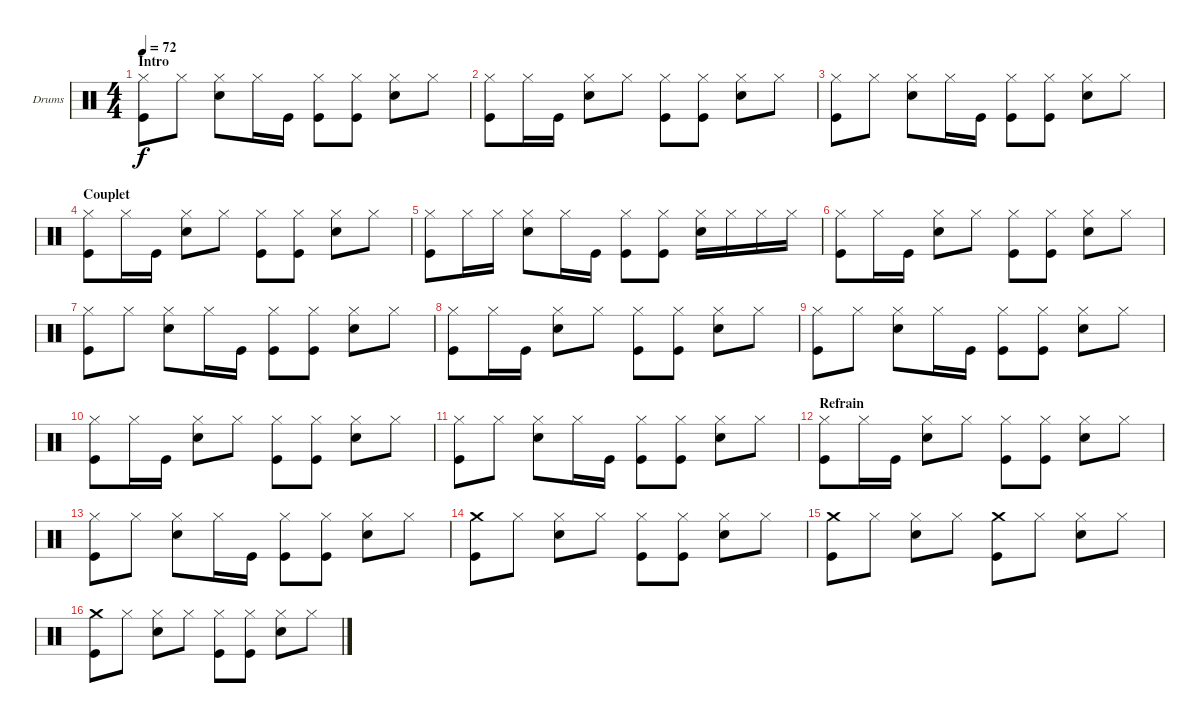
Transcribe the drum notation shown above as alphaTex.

\bracketExtendMode groupsimilarinstruments
\firstSystemTrackNameOrientation horizontal
\otherSystemsTrackNameOrientation horizontal
\track ("Roger Taylor" "Drums") {multiBarRest instrument percussion}
\staff {score}
\articulation defaults
\ts (4 4)
\section ("" "Intro")
\tempo 72
\clef neutral
\ks c
("Hi-Hat (closed)" "Kick (hit)").8{dy f} "Hi-Hat (closed)".8 ("Hi-Hat (closed)" "Snare (hit) 2").8 "Hi-Hat (closed)".16 "Kick (hit)".16 ("Hi-Hat (closed)" "Kick (hit)").8 ("Hi-Hat (closed)" "Kick (hit)").8 ("Hi-Hat (closed)" "Snare (hit) 2").8 "Hi-Hat (closed)".8 |
("Hi-Hat (closed)" "Kick (hit)").8 "Hi-Hat (closed)".16 "Kick (hit)".16 ("Hi-Hat (closed)" "Snare (hit) 2").8 "Hi-Hat (closed)".8 ("Hi-Hat (closed)" "Kick (hit)").8 ("Hi-Hat (closed)" "Kick (hit)").8 ("Hi-Hat (closed)" "Snare (hit) 2").8 "Hi-Hat (closed)".8 |
("Hi-Hat (closed)" "Kick (hit)").8 "Hi-Hat (closed)".8 ("Hi-Hat (closed)" "Snare (hit) 2").8 "Hi-Hat (closed)".16 "Kick (hit)".16 ("Hi-Hat (closed)" "Kick (hit)").8 ("Hi-Hat (closed)" "Kick (hit)").8 ("Hi-Hat (closed)" "Snare (hit) 2").8 "Hi-Hat (closed)".8 |
\section ("" "Couplet")
("Hi-Hat (closed)" "Kick (hit)").8 "Hi-Hat (closed)".16 "Kick (hit)".16 ("Hi-Hat (closed)" "Snare (hit) 2").8 "Hi-Hat (closed)".8 ("Hi-Hat (closed)" "Kick (hit)").8 ("Hi-Hat (closed)" "Kick (hit)").8 ("Hi-Hat (closed)" "Snare (hit) 2").8 "Hi-Hat (closed)".8 |
("Hi-Hat (closed)" "Kick (hit)").8 "Hi-Hat (closed)".16 "Hi-Hat (closed)".16 ("Hi-Hat (closed)" "Snare (hit) 2").8 "Hi-Hat (closed)".16 "Kick (hit)".16 ("Hi-Hat (closed)" "Kick (hit)").8 ("Hi-Hat (closed)" "Kick (hit)").8 ("Hi-Hat (closed)" "Snare (hit) 2").16 "Hi-Hat (closed)".16 "Hi-Hat (closed)".16 "Hi-Hat (closed)".16 |
("Hi-Hat (closed)" "Kick (hit)").8 "Hi-Hat (closed)".16 "Kick (hit)".16 ("Hi-Hat (closed)" "Snare (hit) 2").8 "Hi-Hat (closed)".8 ("Hi-Hat (closed)" "Kick (hit)").8 ("Hi-Hat (closed)" "Kick (hit)").8 ("Hi-Hat (closed)" "Snare (hit) 2").8 "Hi-Hat (closed)".8 |
("Hi-Hat (closed)" "Kick (hit)").8 "Hi-Hat (closed)".8 ("Hi-Hat (closed)" "Snare (hit) 2").8 "Hi-Hat (closed)".16 "Kick (hit)".16 ("Hi-Hat (closed)" "Kick (hit)").8 ("Hi-Hat (closed)" "Kick (hit)").8 ("Hi-Hat (closed)" "Snare (hit) 2").8 "Hi-Hat (closed)".8 |
("Hi-Hat (closed)" "Kick (hit)").8 "Hi-Hat (closed)".16 "Kick (hit)".16 ("Hi-Hat (closed)" "Snare (hit) 2").8 "Hi-Hat (closed)".8 ("Hi-Hat (closed)" "Kick (hit)").8 ("Hi-Hat (closed)" "Kick (hit)").8 ("Hi-Hat (closed)" "Snare (hit) 2").8 "Hi-Hat (closed)".8 |
("Hi-Hat (closed)" "Kick (hit)").8 "Hi-Hat (closed)".8 ("Hi-Hat (closed)" "Snare (hit) 2").8 "Hi-Hat (closed)".16 "Kick (hit)".16 ("Hi-Hat (closed)" "Kick (hit)").8 ("Hi-Hat (closed)" "Kick (hit)").8 ("Hi-Hat (closed)" "Snare (hit) 2").8 "Hi-Hat (closed)".8 |
("Hi-Hat (closed)" "Kick (hit)").8 "Hi-Hat (closed)".16 "Kick (hit)".16 ("Hi-Hat (closed)" "Snare (hit) 2").8 "Hi-Hat (closed)".8 ("Hi-Hat (closed)" "Kick (hit)").8 ("Hi-Hat (closed)" "Kick (hit)").8 ("Hi-Hat (closed)" "Snare (hit) 2").8 "Hi-Hat (closed)".8 |
("Hi-Hat (closed)" "Kick (hit)").8 "Hi-Hat (closed)".8 ("Hi-Hat (closed)" "Snare (hit) 2").8 "Hi-Hat (closed)".16 "Kick (hit)".16 ("Hi-Hat (closed)" "Kick (hit)").8 ("Hi-Hat (closed)" "Kick (hit)").8 ("Hi-Hat (closed)" "Snare (hit) 2").8 "Hi-Hat (closed)".8 |
\section ("" "Refrain")
("Hi-Hat (closed)" "Kick (hit)").8 "Hi-Hat (closed)".16 "Kick (hit)".16 ("Hi-Hat (closed)" "Snare (hit) 2").8 "Hi-Hat (closed)".8 ("Hi-Hat (closed)" "Kick (hit)").8 ("Hi-Hat (closed)" "Kick (hit)").8 ("Hi-Hat (closed)" "Snare (hit) 2").8 "Hi-Hat (closed)".8 |
("Hi-Hat (closed)" "Kick (hit)").8 "Hi-Hat (closed)".8 ("Hi-Hat (closed)" "Snare (hit) 2").8 "Hi-Hat (closed)".16 "Kick (hit)".16 ("Hi-Hat (closed)" "Kick (hit)").8 ("Hi-Hat (closed)" "Kick (hit)").8 ("Hi-Hat (closed)" "Snare (hit) 2").8 "Hi-Hat (closed)".8 |
("Crash medium (hit)" "Kick (hit)").8 "Hi-Hat (closed)".8 ("Hi-Hat (closed)" "Snare (hit) 2").8 "Hi-Hat (closed)".8 ("Hi-Hat (closed)" "Kick (hit)").8 ("Hi-Hat (closed)" "Kick (hit)").8 ("Hi-Hat (closed)" "Snare (hit) 2").8 "Hi-Hat (closed)".8 |
("Crash medium (hit)" "Kick (hit)").8 "Hi-Hat (closed)".8 ("Hi-Hat (closed)" "Snare (hit) 2").8 "Hi-Hat (closed)".8 ("Crash medium (hit)" "Kick (hit)").8 "Hi-Hat (closed)".8 ("Hi-Hat (closed)" "Snare (hit) 2").8 "Hi-Hat (closed)".8 |
("Crash medium (hit)" "Kick (hit)").8 "Hi-Hat (closed)".8 ("Hi-Hat (closed)" "Snare (hit) 2").8 "Hi-Hat (closed)".8 ("Hi-Hat (closed)" "Kick (hit)").8 ("Hi-Hat (closed)" "Kick (hit)").8 ("Hi-Hat (closed)" "Snare (hit) 2").8 "Hi-Hat (closed)".8
